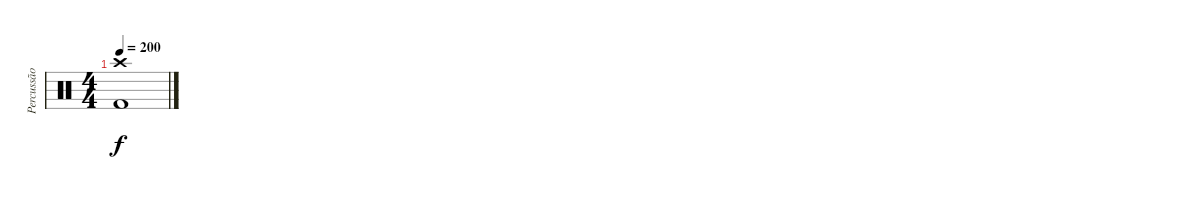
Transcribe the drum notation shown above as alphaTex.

\track ("Percussão" "Percussão") {instrument percussion}
\staff {score}
\articulation defaults
\ts (4 4)
\tempo 200
\clef neutral
\ks c
("Crash high (hit)" "Kick (hit) 2").1{dy f}
